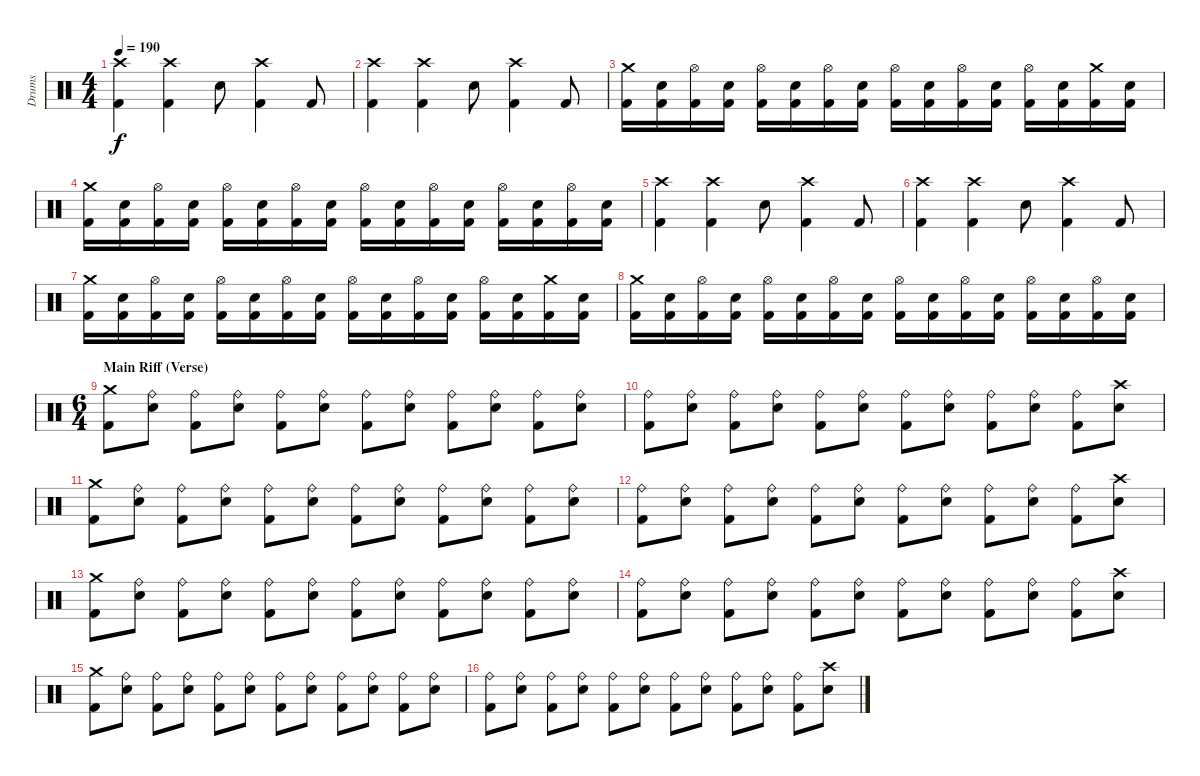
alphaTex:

\track ("Drums" "Drums") {instrument percussion}
\staff {score}
\articulation defaults
\ts (4 4)
\tempo 190
\clef neutral
\ks c
("Crash high (hit)" "Kick (hit) 2").4{dy f} ("Crash high (hit)" "Kick (hit) 2").4 "Snare (hit) 2".8 ("Crash high (hit)" "Kick (hit) 2").4 "Kick (hit) 2".8 |
("Crash high (hit)" "Kick (hit) 2").4 ("Crash high (hit)" "Kick (hit) 2").4 "Snare (hit) 2".8 ("Crash high (hit)" "Kick (hit) 2").4 "Kick (hit) 2".8 |
("Crash medium (hit)" "Kick (hit) 2").16 ("Snare (hit) 2" "Kick (hit) 2").16 ("Hi-Hat (open)" "Kick (hit) 2").16 ("Snare (hit) 2" "Kick (hit) 2").16 ("Hi-Hat (open)" "Kick (hit) 2").16 ("Snare (hit) 2" "Kick (hit) 2").16 ("Hi-Hat (open)" "Kick (hit) 2").16 ("Snare (hit) 2" "Kick (hit) 2").16 ("Hi-Hat (open)" "Kick (hit) 2").16 ("Snare (hit) 2" "Kick (hit) 2").16 ("Hi-Hat (open)" "Kick (hit) 2").16 ("Snare (hit) 2" "Kick (hit) 2").16 ("Hi-Hat (open)" "Kick (hit) 2").16 ("Snare (hit) 2" "Kick (hit) 2").16 ("Crash medium (hit)" "Kick (hit) 2").16 ("Snare (hit) 2" "Kick (hit) 2").16 |
("Crash medium (hit)" "Kick (hit) 2").16 ("Snare (hit) 2" "Kick (hit) 2").16 ("Hi-Hat (open)" "Kick (hit) 2").16 ("Snare (hit) 2" "Kick (hit) 2").16 ("Hi-Hat (open)" "Kick (hit) 2").16 ("Snare (hit) 2" "Kick (hit) 2").16 ("Hi-Hat (open)" "Kick (hit) 2").16 ("Snare (hit) 2" "Kick (hit) 2").16 ("Hi-Hat (open)" "Kick (hit) 2").16 ("Snare (hit) 2" "Kick (hit) 2").16 ("Hi-Hat (open)" "Kick (hit) 2").16 ("Snare (hit) 2" "Kick (hit) 2").16 ("Hi-Hat (open)" "Kick (hit) 2").16 ("Snare (hit) 2" "Kick (hit) 2").16 ("Hi-Hat (open)" "Kick (hit) 2").16 ("Snare (hit) 2" "Kick (hit) 2").16 |
("Crash high (hit)" "Kick (hit) 2").4 ("Crash high (hit)" "Kick (hit) 2").4 "Snare (hit) 2".8 ("Crash high (hit)" "Kick (hit) 2").4 "Kick (hit) 2".8 |
("Crash high (hit)" "Kick (hit) 2").4 ("Crash high (hit)" "Kick (hit) 2").4 "Snare (hit) 2".8 ("Crash high (hit)" "Kick (hit) 2").4 "Kick (hit) 2".8 |
("Crash medium (hit)" "Kick (hit) 2").16 ("Snare (hit) 2" "Kick (hit) 2").16 ("Hi-Hat (open)" "Kick (hit) 2").16 ("Snare (hit) 2" "Kick (hit) 2").16 ("Hi-Hat (open)" "Kick (hit) 2").16 ("Snare (hit) 2" "Kick (hit) 2").16 ("Hi-Hat (open)" "Kick (hit) 2").16 ("Snare (hit) 2" "Kick (hit) 2").16 ("Hi-Hat (open)" "Kick (hit) 2").16 ("Snare (hit) 2" "Kick (hit) 2").16 ("Hi-Hat (open)" "Kick (hit) 2").16 ("Snare (hit) 2" "Kick (hit) 2").16 ("Hi-Hat (open)" "Kick (hit) 2").16 ("Snare (hit) 2" "Kick (hit) 2").16 ("Crash medium (hit)" "Kick (hit) 2").16 ("Snare (hit) 2" "Kick (hit) 2").16 |
("Crash medium (hit)" "Kick (hit) 2").16 ("Snare (hit) 2" "Kick (hit) 2").16 ("Hi-Hat (open)" "Kick (hit) 2").16 ("Snare (hit) 2" "Kick (hit) 2").16 ("Hi-Hat (open)" "Kick (hit) 2").16 ("Snare (hit) 2" "Kick (hit) 2").16 ("Hi-Hat (open)" "Kick (hit) 2").16 ("Snare (hit) 2" "Kick (hit) 2").16 ("Hi-Hat (open)" "Kick (hit) 2").16 ("Snare (hit) 2" "Kick (hit) 2").16 ("Hi-Hat (open)" "Kick (hit) 2").16 ("Snare (hit) 2" "Kick (hit) 2").16 ("Hi-Hat (open)" "Kick (hit) 2").16 ("Snare (hit) 2" "Kick (hit) 2").16 ("Hi-Hat (open)" "Kick (hit) 2").16 ("Snare (hit) 2" "Kick (hit) 2").16 |
\ts (6 4)
\section ("" "Main Riff (Verse)")
("Crash medium (hit)" "Kick (hit) 2").8 ("Ride (bell)" "Snare (hit) 2").8 ("Ride (bell)" "Kick (hit) 2").8 ("Ride (bell)" "Snare (hit) 2").8 ("Ride (bell)" "Kick (hit) 2").8 ("Ride (bell)" "Snare (hit) 2").8 ("Ride (bell)" "Kick (hit) 2").8 ("Ride (bell)" "Snare (hit) 2").8 ("Ride (bell)" "Kick (hit) 2").8 ("Ride (bell)" "Snare (hit) 2").8 ("Ride (bell)" "Kick (hit) 2").8 ("Ride (bell)" "Snare (hit) 2").8 |
("Ride (bell)" "Kick (hit) 2").8 ("Ride (bell)" "Snare (hit) 2").8 ("Ride (bell)" "Kick (hit) 2").8 ("Ride (bell)" "Snare (hit) 2").8 ("Ride (bell)" "Kick (hit) 2").8 ("Ride (bell)" "Snare (hit) 2").8 ("Ride (bell)" "Kick (hit) 2").8 ("Ride (bell)" "Snare (hit) 2").8 ("Ride (bell)" "Kick (hit) 2").8 ("Ride (bell)" "Snare (hit) 2").8 ("Ride (bell)" "Kick (hit) 2").8 ("Crash high (hit)" "Snare (hit) 2").8 |
("Crash medium (hit)" "Kick (hit) 2").8 ("Ride (bell)" "Snare (hit) 2").8 ("Ride (bell)" "Kick (hit) 2").8 ("Ride (bell)" "Snare (hit) 2").8 ("Ride (bell)" "Kick (hit) 2").8 ("Ride (bell)" "Snare (hit) 2").8 ("Ride (bell)" "Kick (hit) 2").8 ("Ride (bell)" "Snare (hit) 2").8 ("Ride (bell)" "Kick (hit) 2").8 ("Ride (bell)" "Snare (hit) 2").8 ("Ride (bell)" "Kick (hit) 2").8 ("Ride (bell)" "Snare (hit) 2").8 |
("Ride (bell)" "Kick (hit) 2").8 ("Ride (bell)" "Snare (hit) 2").8 ("Ride (bell)" "Kick (hit) 2").8 ("Ride (bell)" "Snare (hit) 2").8 ("Ride (bell)" "Kick (hit) 2").8 ("Ride (bell)" "Snare (hit) 2").8 ("Ride (bell)" "Kick (hit) 2").8 ("Ride (bell)" "Snare (hit) 2").8 ("Ride (bell)" "Kick (hit) 2").8 ("Ride (bell)" "Snare (hit) 2").8 ("Ride (bell)" "Kick (hit) 2").8 ("Crash high (hit)" "Snare (hit) 2").8 |
("Crash medium (hit)" "Kick (hit) 2").8 ("Ride (bell)" "Snare (hit) 2").8 ("Ride (bell)" "Kick (hit) 2").8 ("Ride (bell)" "Snare (hit) 2").8 ("Ride (bell)" "Kick (hit) 2").8 ("Ride (bell)" "Snare (hit) 2").8 ("Ride (bell)" "Kick (hit) 2").8 ("Ride (bell)" "Snare (hit) 2").8 ("Ride (bell)" "Kick (hit) 2").8 ("Ride (bell)" "Snare (hit) 2").8 ("Ride (bell)" "Kick (hit) 2").8 ("Ride (bell)" "Snare (hit) 2").8 |
("Ride (bell)" "Kick (hit) 2").8 ("Ride (bell)" "Snare (hit) 2").8 ("Ride (bell)" "Kick (hit) 2").8 ("Ride (bell)" "Snare (hit) 2").8 ("Ride (bell)" "Kick (hit) 2").8 ("Ride (bell)" "Snare (hit) 2").8 ("Ride (bell)" "Kick (hit) 2").8 ("Ride (bell)" "Snare (hit) 2").8 ("Ride (bell)" "Kick (hit) 2").8 ("Ride (bell)" "Snare (hit) 2").8 ("Ride (bell)" "Kick (hit) 2").8 ("Crash high (hit)" "Snare (hit) 2").8 |
("Crash medium (hit)" "Kick (hit) 2").8 ("Ride (bell)" "Snare (hit) 2").8 ("Ride (bell)" "Kick (hit) 2").8 ("Ride (bell)" "Snare (hit) 2").8 ("Ride (bell)" "Kick (hit) 2").8 ("Ride (bell)" "Snare (hit) 2").8 ("Ride (bell)" "Kick (hit) 2").8 ("Ride (bell)" "Snare (hit) 2").8 ("Ride (bell)" "Kick (hit) 2").8 ("Ride (bell)" "Snare (hit) 2").8 ("Ride (bell)" "Kick (hit) 2").8 ("Ride (bell)" "Snare (hit) 2").8 |
("Ride (bell)" "Kick (hit) 2").8 ("Ride (bell)" "Snare (hit) 2").8 ("Ride (bell)" "Kick (hit) 2").8 ("Ride (bell)" "Snare (hit) 2").8 ("Ride (bell)" "Kick (hit) 2").8 ("Ride (bell)" "Snare (hit) 2").8 ("Ride (bell)" "Kick (hit) 2").8 ("Ride (bell)" "Snare (hit) 2").8 ("Ride (bell)" "Kick (hit) 2").8 ("Ride (bell)" "Snare (hit) 2").8 ("Ride (bell)" "Kick (hit) 2").8 ("Crash high (hit)" "Snare (hit) 2").8
